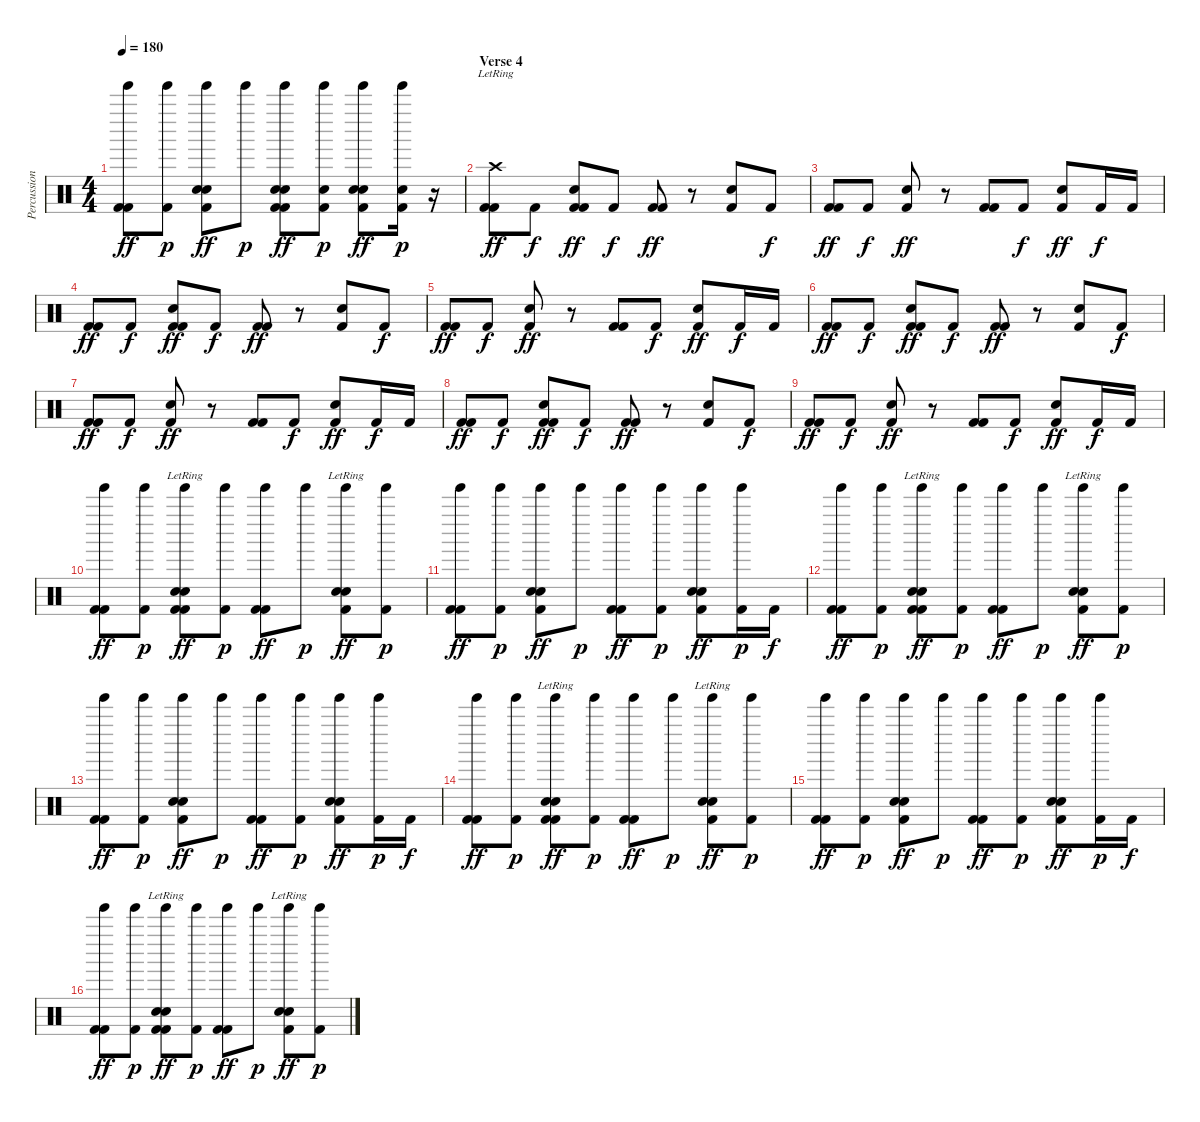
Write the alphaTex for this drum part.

\track ("Percussion" "Percussion") {instrument percussion}
\staff {score}
\articulation defaults
\ts (4 4)
\tempo 180
\clef neutral
\ks c
("Tinkle Bell (hit)" "Kick (hit) 2" "Kick (hit) 2").8{dy ff} ("Tinkle Bell (hit)" "Kick (hit) 2").8{dy p} ("Tinkle Bell (hit)" "Snare (hit) 2" "Electric Snare (hit)" "Kick (hit) 2").8{dy ff} "Tinkle Bell (hit)".8{dy p} ("Tinkle Bell (hit)" "Snare (hit) 2" "Electric Snare (hit)" "Kick (hit) 2" "Kick (hit) 2").8{dy ff} ("Tinkle Bell (hit)" "Electric Snare (hit)" "Kick (hit) 2").8{dy p} ("Tinkle Bell (hit)" "Snare (hit) 2" "Electric Snare (hit)" "Kick (hit) 2").8{dy ff} ("Tinkle Bell (hit)" "Electric Snare (hit)" "Kick (hit) 2").16{dy p} r.16 |
\section ("" "Verse 4")
("Crash high (hit)"{lr} "Kick (hit) 2" "Kick (hit) 2").8{dy ff} "Kick (hit) 2".8{dy f} ("Electric Snare (hit)" "Kick (hit) 2" "Kick (hit) 2").8{dy ff} "Kick (hit) 2".8{dy f} ("Kick (hit) 2" "Kick (hit) 2").8{dy ff} r.8 ("Electric Snare (hit)" "Kick (hit) 2").8 "Kick (hit) 2".8{dy f} |
("Kick (hit) 2" "Kick (hit) 2").8{dy ff} "Kick (hit) 2".8{dy f} ("Electric Snare (hit)" "Kick (hit) 2").8{dy ff} r.8 ("Kick (hit) 2" "Kick (hit) 2").8 "Kick (hit) 2".8{dy f} ("Electric Snare (hit)" "Kick (hit) 2").8{dy ff} "Kick (hit) 2".16{dy f} "Kick (hit) 2".16 |
("Kick (hit) 2" "Kick (hit) 2").8{dy ff} "Kick (hit) 2".8{dy f} ("Electric Snare (hit)" "Kick (hit) 2" "Kick (hit) 2").8{dy ff} "Kick (hit) 2".8{dy f} ("Kick (hit) 2" "Kick (hit) 2").8{dy ff} r.8 ("Electric Snare (hit)" "Kick (hit) 2").8 "Kick (hit) 2".8{dy f} |
("Kick (hit) 2" "Kick (hit) 2").8{dy ff} "Kick (hit) 2".8{dy f} ("Electric Snare (hit)" "Kick (hit) 2").8{dy ff} r.8 ("Kick (hit) 2" "Kick (hit) 2").8 "Kick (hit) 2".8{dy f} ("Electric Snare (hit)" "Kick (hit) 2").8{dy ff} "Kick (hit) 2".16{dy f} "Kick (hit) 2".16 |
("Kick (hit) 2" "Kick (hit) 2").8{dy ff} "Kick (hit) 2".8{dy f} ("Electric Snare (hit)" "Kick (hit) 2" "Kick (hit) 2").8{dy ff} "Kick (hit) 2".8{dy f} ("Kick (hit) 2" "Kick (hit) 2").8{dy ff} r.8 ("Electric Snare (hit)" "Kick (hit) 2").8 "Kick (hit) 2".8{dy f} |
("Kick (hit) 2" "Kick (hit) 2").8{dy ff} "Kick (hit) 2".8{dy f} ("Electric Snare (hit)" "Kick (hit) 2").8{dy ff} r.8 ("Kick (hit) 2" "Kick (hit) 2").8 "Kick (hit) 2".8{dy f} ("Electric Snare (hit)" "Kick (hit) 2").8{dy ff} "Kick (hit) 2".16{dy f} "Kick (hit) 2".16 |
("Kick (hit) 2" "Kick (hit) 2").8{dy ff} "Kick (hit) 2".8{dy f} ("Electric Snare (hit)" "Kick (hit) 2" "Kick (hit) 2").8{dy ff} "Kick (hit) 2".8{dy f} ("Kick (hit) 2" "Kick (hit) 2").8{dy ff} r.8 ("Electric Snare (hit)" "Kick (hit) 2").8 "Kick (hit) 2".8{dy f} |
("Kick (hit) 2" "Kick (hit) 2").8{dy ff} "Kick (hit) 2".8{dy f} ("Electric Snare (hit)" "Kick (hit) 2").8{dy ff} r.8 ("Kick (hit) 2" "Kick (hit) 2").8 "Kick (hit) 2".8{dy f} ("Electric Snare (hit)" "Kick (hit) 2").8{dy ff} "Kick (hit) 2".16{dy f} "Kick (hit) 2".16 |
("Tinkle Bell (hit)" "Kick (hit) 2" "Kick (hit) 2").8{dy ff} ("Tinkle Bell (hit)" "Kick (hit) 2").8{dy p} ("Tinkle Bell (hit)" "Snare (hit) 2"{lr} "Electric Snare (hit)" "Kick (hit) 2" "Kick (hit) 2").8{dy ff} ("Tinkle Bell (hit)" "Kick (hit) 2").8{dy p} ("Tinkle Bell (hit)" "Kick (hit) 2" "Kick (hit) 2").8{dy ff} "Tinkle Bell (hit)".8{dy p} ("Tinkle Bell (hit)" "Snare (hit) 2"{lr} "Electric Snare (hit)" "Kick (hit) 2").8{dy ff} ("Tinkle Bell (hit)" "Kick (hit) 2").8{dy p} |
("Tinkle Bell (hit)" "Kick (hit) 2" "Kick (hit) 2").8{dy ff} ("Tinkle Bell (hit)" "Kick (hit) 2").8{dy p} ("Tinkle Bell (hit)" "Snare (hit) 2" "Electric Snare (hit)" "Kick (hit) 2").8{dy ff} "Tinkle Bell (hit)".8{dy p} ("Tinkle Bell (hit)" "Kick (hit) 2" "Kick (hit) 2").8{dy ff} ("Tinkle Bell (hit)" "Kick (hit) 2").8{dy p} ("Tinkle Bell (hit)" "Snare (hit) 2" "Electric Snare (hit)" "Kick (hit) 2").8{dy ff} ("Tinkle Bell (hit)" "Kick (hit) 2").16{dy p} "Kick (hit) 2".16{dy f} |
("Tinkle Bell (hit)" "Kick (hit) 2" "Kick (hit) 2").8{dy ff} ("Tinkle Bell (hit)" "Kick (hit) 2").8{dy p} ("Tinkle Bell (hit)" "Snare (hit) 2"{lr} "Electric Snare (hit)" "Kick (hit) 2" "Kick (hit) 2").8{dy ff} ("Tinkle Bell (hit)" "Kick (hit) 2").8{dy p} ("Tinkle Bell (hit)" "Kick (hit) 2" "Kick (hit) 2").8{dy ff} "Tinkle Bell (hit)".8{dy p} ("Tinkle Bell (hit)" "Snare (hit) 2"{lr} "Electric Snare (hit)" "Kick (hit) 2").8{dy ff} ("Tinkle Bell (hit)" "Kick (hit) 2").8{dy p} |
("Tinkle Bell (hit)" "Kick (hit) 2" "Kick (hit) 2").8{dy ff} ("Tinkle Bell (hit)" "Kick (hit) 2").8{dy p} ("Tinkle Bell (hit)" "Snare (hit) 2" "Electric Snare (hit)" "Kick (hit) 2").8{dy ff} "Tinkle Bell (hit)".8{dy p} ("Tinkle Bell (hit)" "Kick (hit) 2" "Kick (hit) 2").8{dy ff} ("Tinkle Bell (hit)" "Kick (hit) 2").8{dy p} ("Tinkle Bell (hit)" "Snare (hit) 2" "Electric Snare (hit)" "Kick (hit) 2").8{dy ff} ("Tinkle Bell (hit)" "Kick (hit) 2").16{dy p} "Kick (hit) 2".16{dy f} |
("Tinkle Bell (hit)" "Kick (hit) 2" "Kick (hit) 2").8{dy ff} ("Tinkle Bell (hit)" "Kick (hit) 2").8{dy p} ("Tinkle Bell (hit)" "Snare (hit) 2"{lr} "Electric Snare (hit)" "Kick (hit) 2" "Kick (hit) 2").8{dy ff} ("Tinkle Bell (hit)" "Kick (hit) 2").8{dy p} ("Tinkle Bell (hit)" "Kick (hit) 2" "Kick (hit) 2").8{dy ff} "Tinkle Bell (hit)".8{dy p} ("Tinkle Bell (hit)" "Snare (hit) 2"{lr} "Electric Snare (hit)" "Kick (hit) 2").8{dy ff} ("Tinkle Bell (hit)" "Kick (hit) 2").8{dy p} |
("Tinkle Bell (hit)" "Kick (hit) 2" "Kick (hit) 2").8{dy ff} ("Tinkle Bell (hit)" "Kick (hit) 2").8{dy p} ("Tinkle Bell (hit)" "Snare (hit) 2" "Electric Snare (hit)" "Kick (hit) 2").8{dy ff} "Tinkle Bell (hit)".8{dy p} ("Tinkle Bell (hit)" "Kick (hit) 2" "Kick (hit) 2").8{dy ff} ("Tinkle Bell (hit)" "Kick (hit) 2").8{dy p} ("Tinkle Bell (hit)" "Snare (hit) 2" "Electric Snare (hit)" "Kick (hit) 2").8{dy ff} ("Tinkle Bell (hit)" "Kick (hit) 2").16{dy p} "Kick (hit) 2".16{dy f} |
("Tinkle Bell (hit)" "Kick (hit) 2" "Kick (hit) 2").8{dy ff} ("Tinkle Bell (hit)" "Kick (hit) 2").8{dy p} ("Tinkle Bell (hit)" "Snare (hit) 2"{lr} "Electric Snare (hit)" "Kick (hit) 2" "Kick (hit) 2").8{dy ff} ("Tinkle Bell (hit)" "Kick (hit) 2").8{dy p} ("Tinkle Bell (hit)" "Kick (hit) 2" "Kick (hit) 2").8{dy ff} "Tinkle Bell (hit)".8{dy p} ("Tinkle Bell (hit)" "Snare (hit) 2"{lr} "Electric Snare (hit)" "Kick (hit) 2").8{dy ff} ("Tinkle Bell (hit)" "Kick (hit) 2").8{dy p}
